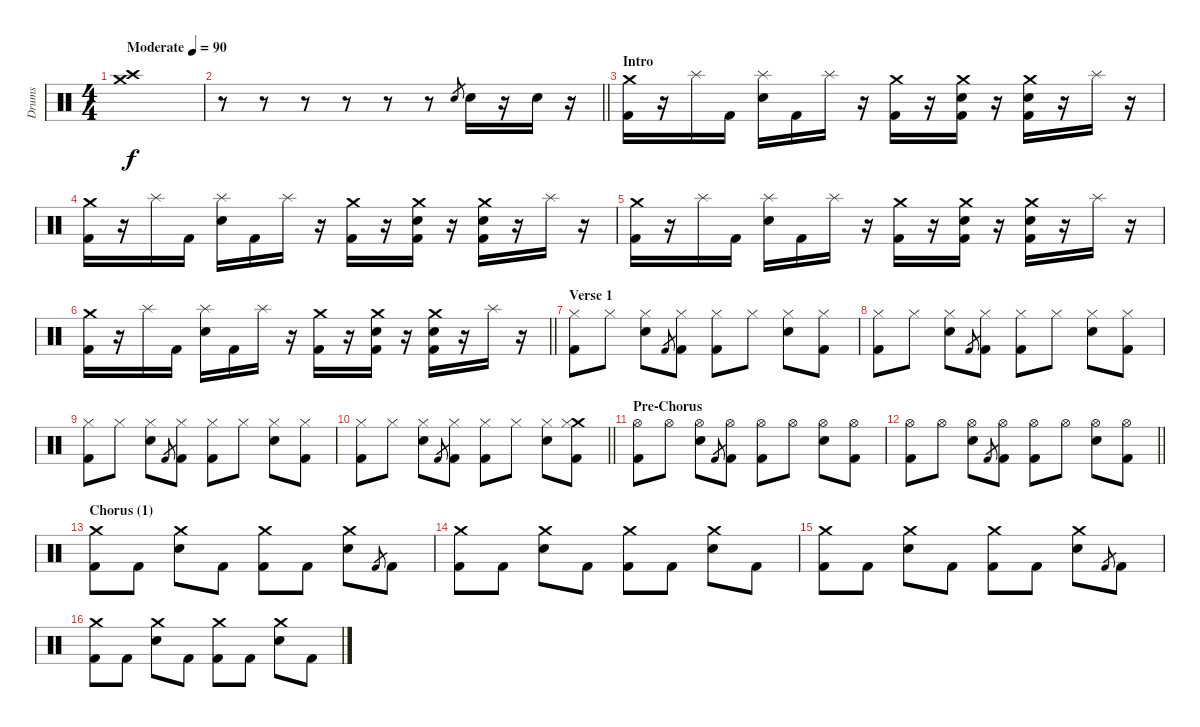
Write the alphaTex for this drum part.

\track ("Drums" "Drums") {instrument percussion}
\staff {score}
\articulation defaults
\ts (4 4)
\tempo (90 "Moderate")
\clef neutral
\ks c
("Crash high (hit)" "Crash medium (hit)").1{dy f} |
\barLineRight lightlight
r.8 r.8 r.8 r.8 r.8 r.8 "Electric Snare (hit)".8{gr} "Electric Snare (hit)".16 r.16 "Electric Snare (hit)".16 r.16 |
\section ("" "Intro")
("Crash medium (hit)" "Kick (hit) 2").16 r.16 "Splash (hit)".16 "Kick (hit) 2".16 ("Splash (hit)" "Electric Snare (hit)").16 "Kick (hit) 2".16 "Splash (hit)".16 r.16 ("Crash medium (hit)" "Kick (hit) 2").16 r.16 ("Crash medium (hit)" "Electric Snare (hit)" "Kick (hit) 2").16 r.16 ("Crash medium (hit)" "Electric Snare (hit)" "Kick (hit) 2").16 r.16 "Splash (hit)".16 r.16 |
("Crash medium (hit)" "Kick (hit) 2").16 r.16 "Splash (hit)".16 "Kick (hit) 2".16 ("Splash (hit)" "Electric Snare (hit)").16 "Kick (hit) 2".16 "Splash (hit)".16 r.16 ("Crash medium (hit)" "Kick (hit) 2").16 r.16 ("Crash medium (hit)" "Electric Snare (hit)" "Kick (hit) 2").16 r.16 ("Crash medium (hit)" "Electric Snare (hit)" "Kick (hit) 2").16 r.16 "Splash (hit)".16 r.16 |
("Crash medium (hit)" "Kick (hit) 2").16 r.16 "Splash (hit)".16 "Kick (hit) 2".16 ("Splash (hit)" "Electric Snare (hit)").16 "Kick (hit) 2".16 "Splash (hit)".16 r.16 ("Crash medium (hit)" "Kick (hit) 2").16 r.16 ("Crash medium (hit)" "Electric Snare (hit)" "Kick (hit) 2").16 r.16 ("Crash medium (hit)" "Electric Snare (hit)" "Kick (hit) 2").16 r.16 "Splash (hit)".16 r.16 |
\barLineRight lightlight
("Crash medium (hit)" "Kick (hit) 2").16 r.16 "Splash (hit)".16 "Kick (hit) 2".16 ("Splash (hit)" "Electric Snare (hit)").16 "Kick (hit) 2".16 "Splash (hit)".16 r.16 ("Crash medium (hit)" "Kick (hit) 2").16 r.16 ("Crash medium (hit)" "Electric Snare (hit)" "Kick (hit) 2").16 r.16 ("Crash medium (hit)" "Electric Snare (hit)" "Kick (hit) 2").16 r.16 "Splash (hit)".16 r.16 |
\section ("" "Verse 1")
("Hi-Hat (closed)" "Kick (hit) 2").8 "Hi-Hat (closed)".8 ("Hi-Hat (closed)" "Electric Snare (hit)").8 "Kick (hit) 2".8{gr} ("Hi-Hat (closed)" "Kick (hit) 2").8 ("Hi-Hat (closed)" "Kick (hit) 2").8 "Hi-Hat (closed)".8 ("Hi-Hat (closed)" "Electric Snare (hit)").8 ("Hi-Hat (closed)" "Kick (hit) 2").8 |
("Hi-Hat (closed)" "Kick (hit) 2").8 "Hi-Hat (closed)".8 ("Hi-Hat (closed)" "Electric Snare (hit)").8 "Kick (hit) 2".8{gr} ("Hi-Hat (closed)" "Kick (hit) 2").8 ("Hi-Hat (closed)" "Kick (hit) 2").8 "Hi-Hat (closed)".8 ("Hi-Hat (closed)" "Electric Snare (hit)").8 ("Hi-Hat (closed)" "Kick (hit) 2").8 |
("Hi-Hat (closed)" "Kick (hit) 2").8 "Hi-Hat (closed)".8 ("Hi-Hat (closed)" "Electric Snare (hit)").8 "Kick (hit) 2".8{gr} ("Hi-Hat (closed)" "Kick (hit) 2").8 ("Hi-Hat (closed)" "Kick (hit) 2").8 "Hi-Hat (closed)".8 ("Hi-Hat (closed)" "Electric Snare (hit)").8 ("Hi-Hat (closed)" "Kick (hit) 2").8 |
\barLineRight lightlight
("Hi-Hat (closed)" "Kick (hit) 2").8 "Hi-Hat (closed)".8 ("Hi-Hat (closed)" "Electric Snare (hit)").8 "Kick (hit) 2".8{gr} ("Hi-Hat (closed)" "Kick (hit) 2").8 ("Hi-Hat (closed)" "Kick (hit) 2").8 "Hi-Hat (closed)".8 ("Hi-Hat (closed)" "Electric Snare (hit)").8 ("Crash medium (hit)" "Hi-Hat (closed)" "Kick (hit) 2").8 |
\section ("" "Pre-Chorus")
("Hi-Hat (open)" "Kick (hit) 2").8 "Hi-Hat (open)".8 ("Hi-Hat (open)" "Electric Snare (hit)").8 "Kick (hit) 2".8{gr} ("Hi-Hat (open)" "Kick (hit) 2").8 ("Hi-Hat (open)" "Kick (hit) 2").8 "Hi-Hat (open)".8 ("Hi-Hat (open)" "Electric Snare (hit)").8 ("Hi-Hat (open)" "Kick (hit) 2").8 |
\barLineRight lightlight
("Hi-Hat (open)" "Kick (hit) 2").8 "Hi-Hat (open)".8 ("Hi-Hat (open)" "Electric Snare (hit)").8 "Kick (hit) 2".8{gr} ("Hi-Hat (open)" "Kick (hit) 2").8 ("Hi-Hat (open)" "Kick (hit) 2").8 "Hi-Hat (open)".8 ("Hi-Hat (open)" "Electric Snare (hit)").8 ("Hi-Hat (open)" "Kick (hit) 2").8 |
\section ("" "Chorus (1)")
("Crash medium (hit)" "Kick (hit) 2").8 "Kick (hit) 2".8 ("Crash medium (hit)" "Electric Snare (hit)").8 "Kick (hit) 2".8 ("Crash medium (hit)" "Kick (hit) 2").8 "Kick (hit) 2".8 ("Crash medium (hit)" "Electric Snare (hit)").8 "Kick (hit) 2".8{gr} "Kick (hit) 2".8 |
("Crash medium (hit)" "Kick (hit) 2").8 "Kick (hit) 2".8 ("Crash medium (hit)" "Electric Snare (hit)").8 "Kick (hit) 2".8 ("Crash medium (hit)" "Kick (hit) 2").8 "Kick (hit) 2".8 ("Crash medium (hit)" "Electric Snare (hit)").8 "Kick (hit) 2".8 |
("Crash medium (hit)" "Kick (hit) 2").8 "Kick (hit) 2".8 ("Crash medium (hit)" "Electric Snare (hit)").8 "Kick (hit) 2".8 ("Crash medium (hit)" "Kick (hit) 2").8 "Kick (hit) 2".8 ("Crash medium (hit)" "Electric Snare (hit)").8 "Kick (hit) 2".8{gr} "Kick (hit) 2".8 |
("Crash medium (hit)" "Kick (hit) 2").8 "Kick (hit) 2".8 ("Crash medium (hit)" "Electric Snare (hit)").8 "Kick (hit) 2".8 ("Crash medium (hit)" "Kick (hit) 2").8 "Kick (hit) 2".8 ("Crash medium (hit)" "Electric Snare (hit)").8 "Kick (hit) 2".8
